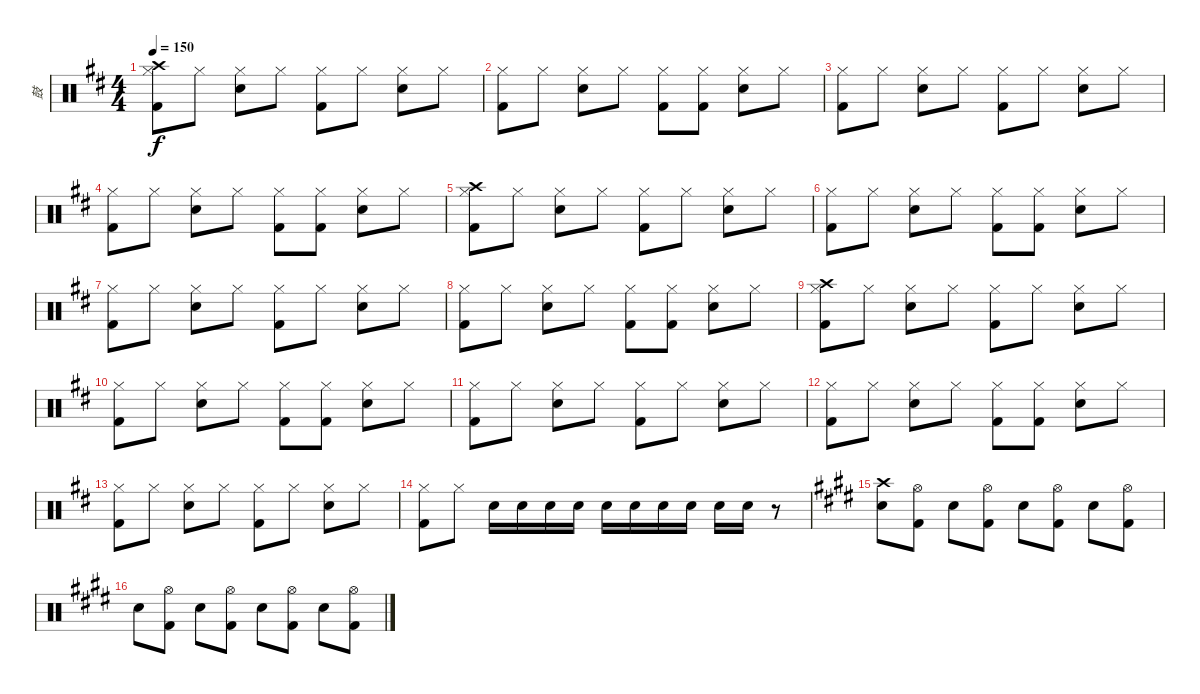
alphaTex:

\track ("鼓" "鼓") {instrument percussion}
\staff {score}
\articulation defaults
\ts (4 4)
\tempo 150
\clef neutral
\ks d
("Crash high (hit)" "Hi-Hat (closed)" "Kick (hit) 2").8{dy f} "Hi-Hat (closed)".8 ("Hi-Hat (closed)" "Snare (hit) 2").8 "Hi-Hat (closed)".8 ("Hi-Hat (closed)" "Kick (hit) 2").8 "Hi-Hat (closed)".8 ("Hi-Hat (closed)" "Snare (hit) 2").8 "Hi-Hat (closed)".8 |
("Hi-Hat (closed)" "Kick (hit) 2").8 "Hi-Hat (closed)".8 ("Hi-Hat (closed)" "Snare (hit) 2").8 "Hi-Hat (closed)".8 ("Hi-Hat (closed)" "Kick (hit) 2").8 ("Hi-Hat (closed)" "Kick (hit) 2").8 ("Hi-Hat (closed)" "Snare (hit) 2").8 "Hi-Hat (closed)".8 |
("Hi-Hat (closed)" "Kick (hit) 2").8 "Hi-Hat (closed)".8 ("Hi-Hat (closed)" "Snare (hit) 2").8 "Hi-Hat (closed)".8 ("Hi-Hat (closed)" "Kick (hit) 2").8 "Hi-Hat (closed)".8 ("Hi-Hat (closed)" "Snare (hit) 2").8 "Hi-Hat (closed)".8 |
("Hi-Hat (closed)" "Kick (hit) 2").8 "Hi-Hat (closed)".8 ("Hi-Hat (closed)" "Snare (hit) 2").8 "Hi-Hat (closed)".8 ("Hi-Hat (closed)" "Kick (hit) 2").8 ("Hi-Hat (closed)" "Kick (hit) 2").8 ("Hi-Hat (closed)" "Snare (hit) 2").8 "Hi-Hat (closed)".8 |
("Crash high (hit)" "Hi-Hat (closed)" "Kick (hit) 2").8 "Hi-Hat (closed)".8 ("Hi-Hat (closed)" "Snare (hit) 2").8 "Hi-Hat (closed)".8 ("Hi-Hat (closed)" "Kick (hit) 2").8 "Hi-Hat (closed)".8 ("Hi-Hat (closed)" "Snare (hit) 2").8 "Hi-Hat (closed)".8 |
("Hi-Hat (closed)" "Kick (hit) 2").8 "Hi-Hat (closed)".8 ("Hi-Hat (closed)" "Snare (hit) 2").8 "Hi-Hat (closed)".8 ("Hi-Hat (closed)" "Kick (hit) 2").8 ("Hi-Hat (closed)" "Kick (hit) 2").8 ("Hi-Hat (closed)" "Snare (hit) 2").8 "Hi-Hat (closed)".8 |
("Hi-Hat (closed)" "Kick (hit) 2").8 "Hi-Hat (closed)".8 ("Hi-Hat (closed)" "Snare (hit) 2").8 "Hi-Hat (closed)".8 ("Hi-Hat (closed)" "Kick (hit) 2").8 "Hi-Hat (closed)".8 ("Hi-Hat (closed)" "Snare (hit) 2").8 "Hi-Hat (closed)".8 |
("Hi-Hat (closed)" "Kick (hit) 2").8 "Hi-Hat (closed)".8 ("Hi-Hat (closed)" "Snare (hit) 2").8 "Hi-Hat (closed)".8 ("Hi-Hat (closed)" "Kick (hit) 2").8 ("Hi-Hat (closed)" "Kick (hit) 2").8 ("Hi-Hat (closed)" "Snare (hit) 2").8 "Hi-Hat (closed)".8 |
("Crash high (hit)" "Hi-Hat (closed)" "Kick (hit) 2").8 "Hi-Hat (closed)".8 ("Hi-Hat (closed)" "Snare (hit) 2").8 "Hi-Hat (closed)".8 ("Hi-Hat (closed)" "Kick (hit) 2").8 "Hi-Hat (closed)".8 ("Hi-Hat (closed)" "Snare (hit) 2").8 "Hi-Hat (closed)".8 |
("Hi-Hat (closed)" "Kick (hit) 2").8 "Hi-Hat (closed)".8 ("Hi-Hat (closed)" "Snare (hit) 2").8 "Hi-Hat (closed)".8 ("Hi-Hat (closed)" "Kick (hit) 2").8 ("Hi-Hat (closed)" "Kick (hit) 2").8 ("Hi-Hat (closed)" "Snare (hit) 2").8 "Hi-Hat (closed)".8 |
("Hi-Hat (closed)" "Kick (hit) 2").8 "Hi-Hat (closed)".8 ("Hi-Hat (closed)" "Snare (hit) 2").8 "Hi-Hat (closed)".8 ("Hi-Hat (closed)" "Kick (hit) 2").8 "Hi-Hat (closed)".8 ("Hi-Hat (closed)" "Snare (hit) 2").8 "Hi-Hat (closed)".8 |
("Hi-Hat (closed)" "Kick (hit) 2").8 "Hi-Hat (closed)".8 ("Hi-Hat (closed)" "Snare (hit) 2").8 "Hi-Hat (closed)".8 ("Hi-Hat (closed)" "Kick (hit) 2").8 ("Hi-Hat (closed)" "Kick (hit) 2").8 ("Hi-Hat (closed)" "Snare (hit) 2").8 "Hi-Hat (closed)".8 |
("Hi-Hat (closed)" "Kick (hit) 2").8 "Hi-Hat (closed)".8 ("Hi-Hat (closed)" "Snare (hit) 2").8 "Hi-Hat (closed)".8 ("Hi-Hat (closed)" "Kick (hit) 2").8 "Hi-Hat (closed)".8 ("Hi-Hat (closed)" "Snare (hit) 2").8 "Hi-Hat (closed)".8 |
("Hi-Hat (closed)" "Kick (hit) 2").8 "Hi-Hat (closed)".8 "Snare (hit) 2".16 "Snare (hit) 2".16 "Snare (hit) 2".16 "Snare (hit) 2".16 "Snare (hit) 2".16 "Snare (hit) 2".16 "Snare (hit) 2".16 "Snare (hit) 2".16 "Snare (hit) 2".16 "Snare (hit) 2".16 r.8 |
\ks e
("Crash high (hit)" "Snare (hit) 2").8 ("Hi-Hat (open)" "Kick (hit) 2").8 "Snare (hit) 2".8 ("Hi-Hat (open)" "Kick (hit) 2").8 "Snare (hit) 2".8 ("Hi-Hat (open)" "Kick (hit) 2").8 "Snare (hit) 2".8 ("Hi-Hat (open)" "Kick (hit) 2").8 |
"Snare (hit) 2".8 ("Hi-Hat (open)" "Kick (hit) 2").8 "Snare (hit) 2".8 ("Hi-Hat (open)" "Kick (hit) 2").8 "Snare (hit) 2".8 ("Hi-Hat (open)" "Kick (hit) 2").8 "Snare (hit) 2".8 ("Hi-Hat (open)" "Kick (hit) 2").8
